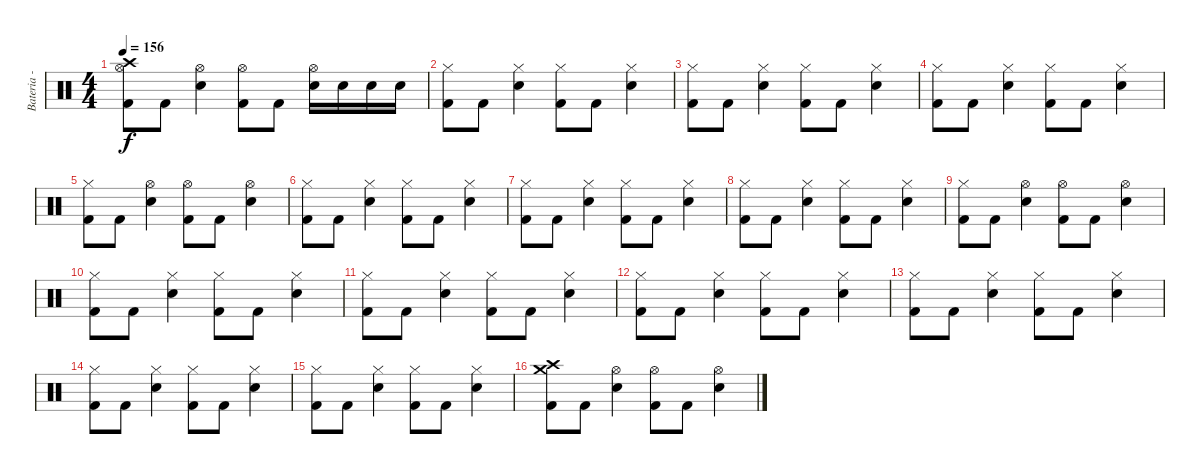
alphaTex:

\track ("Bateria - Kalú" "Bateria - ") {instrument percussion}
\staff {score}
\articulation defaults
\ts (4 4)
\tempo 156
\clef neutral
\ks c
("Crash high (hit)" "Hi-Hat (open)" "Kick (hit) 2").8{dy f} "Kick (hit) 2".8 ("Hi-Hat (open)" "Electric Snare (hit)").4 ("Hi-Hat (open)" "Kick (hit) 2").8 "Kick (hit) 2".8 ("Hi-Hat (open)" "Electric Snare (hit)").16 "Electric Snare (hit)".16 "Electric Snare (hit)".16 "Electric Snare (hit)".16 |
("Hi-Hat (closed)" "Kick (hit) 2").8 "Kick (hit) 2".8 ("Hi-Hat (closed)" "Electric Snare (hit)").4 ("Hi-Hat (closed)" "Kick (hit) 2").8 "Kick (hit) 2".8 ("Hi-Hat (closed)" "Electric Snare (hit)").4 |
("Hi-Hat (closed)" "Kick (hit) 2").8 "Kick (hit) 2".8 ("Hi-Hat (closed)" "Electric Snare (hit)").4 ("Hi-Hat (closed)" "Kick (hit) 2").8 "Kick (hit) 2".8 ("Hi-Hat (closed)" "Electric Snare (hit)").4 |
("Hi-Hat (closed)" "Kick (hit) 2").8 "Kick (hit) 2".8 ("Hi-Hat (closed)" "Electric Snare (hit)").4 ("Hi-Hat (closed)" "Kick (hit) 2").8 "Kick (hit) 2".8 ("Hi-Hat (closed)" "Electric Snare (hit)").4 |
("Hi-Hat (closed)" "Kick (hit) 2").8 "Kick (hit) 2".8 ("Hi-Hat (open)" "Electric Snare (hit)").4 ("Hi-Hat (open)" "Kick (hit) 2").8 "Kick (hit) 2".8 ("Hi-Hat (open)" "Electric Snare (hit)").4 |
("Hi-Hat (closed)" "Kick (hit) 2").8 "Kick (hit) 2".8 ("Hi-Hat (closed)" "Electric Snare (hit)").4 ("Hi-Hat (closed)" "Kick (hit) 2").8 "Kick (hit) 2".8 ("Hi-Hat (closed)" "Electric Snare (hit)").4 |
("Hi-Hat (closed)" "Kick (hit) 2").8 "Kick (hit) 2".8 ("Hi-Hat (closed)" "Electric Snare (hit)").4 ("Hi-Hat (closed)" "Kick (hit) 2").8 "Kick (hit) 2".8 ("Hi-Hat (closed)" "Electric Snare (hit)").4 |
("Hi-Hat (closed)" "Kick (hit) 2").8 "Kick (hit) 2".8 ("Hi-Hat (closed)" "Electric Snare (hit)").4 ("Hi-Hat (closed)" "Kick (hit) 2").8 "Kick (hit) 2".8 ("Hi-Hat (closed)" "Electric Snare (hit)").4 |
("Hi-Hat (closed)" "Kick (hit) 2").8 "Kick (hit) 2".8 ("Hi-Hat (open)" "Electric Snare (hit)").4 ("Hi-Hat (open)" "Kick (hit) 2").8 "Kick (hit) 2".8 ("Hi-Hat (open)" "Electric Snare (hit)").4 |
("Hi-Hat (closed)" "Kick (hit) 2").8 "Kick (hit) 2".8 ("Hi-Hat (closed)" "Electric Snare (hit)").4 ("Hi-Hat (closed)" "Kick (hit) 2").8 "Kick (hit) 2".8 ("Hi-Hat (closed)" "Electric Snare (hit)").4 |
("Hi-Hat (closed)" "Kick (hit) 2").8 "Kick (hit) 2".8 ("Hi-Hat (closed)" "Electric Snare (hit)").4 ("Hi-Hat (closed)" "Kick (hit) 2").8 "Kick (hit) 2".8 ("Hi-Hat (closed)" "Electric Snare (hit)").4 |
("Hi-Hat (closed)" "Kick (hit) 2").8 "Kick (hit) 2".8 ("Hi-Hat (closed)" "Electric Snare (hit)").4 ("Hi-Hat (closed)" "Kick (hit) 2").8 "Kick (hit) 2".8 ("Hi-Hat (closed)" "Electric Snare (hit)").4 |
("Hi-Hat (closed)" "Kick (hit) 2").8 "Kick (hit) 2".8 ("Hi-Hat (closed)" "Electric Snare (hit)").4 ("Hi-Hat (closed)" "Kick (hit) 2").8 "Kick (hit) 2".8 ("Hi-Hat (closed)" "Electric Snare (hit)").4 |
("Hi-Hat (closed)" "Kick (hit) 2").8 "Kick (hit) 2".8 ("Hi-Hat (closed)" "Electric Snare (hit)").4 ("Hi-Hat (closed)" "Kick (hit) 2").8 "Kick (hit) 2".8 ("Hi-Hat (closed)" "Electric Snare (hit)").4 |
("Hi-Hat (closed)" "Kick (hit) 2").8 "Kick (hit) 2".8 ("Hi-Hat (closed)" "Electric Snare (hit)").4 ("Hi-Hat (closed)" "Kick (hit) 2").8 "Kick (hit) 2".8 ("Hi-Hat (closed)" "Electric Snare (hit)").4 |
("Crash high (hit)" "Crash medium (hit)" "Kick (hit) 2").8 "Kick (hit) 2".8 ("Hi-Hat (open)" "Electric Snare (hit)").4 ("Hi-Hat (open)" "Kick (hit) 2").8 "Kick (hit) 2".8 ("Hi-Hat (open)" "Electric Snare (hit)").4
